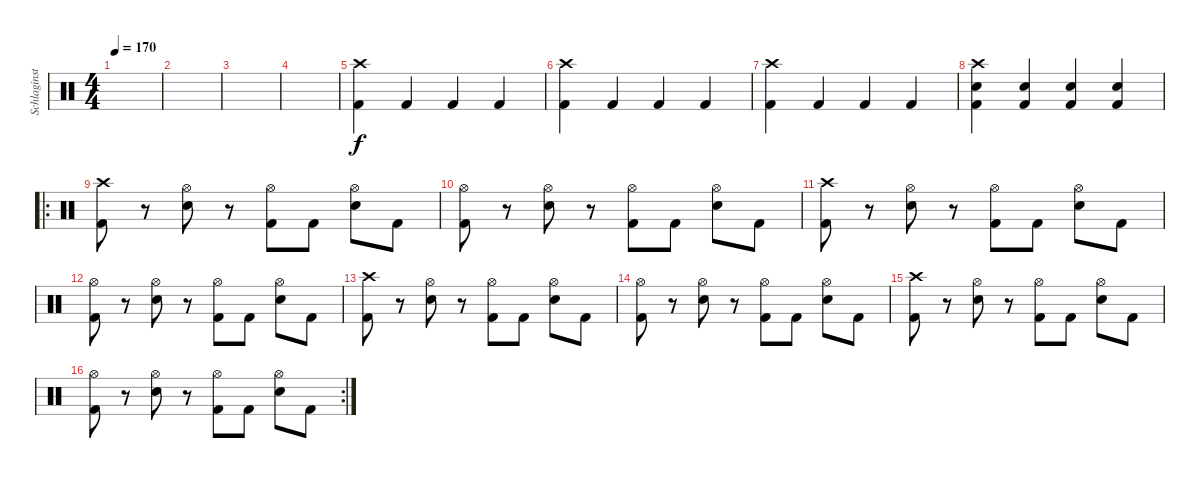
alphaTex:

\track ("Schlaginstrumente - Auswahl" "Schlaginst") {instrument percussion}
\staff {score}
\articulation defaults
\ts (4 4)
\tempo 170
\clef neutral
\ks c
|
|
|
|
("Crash high (hit)" "Kick (hit) 2").4 "Kick (hit) 2".4 "Kick (hit) 2".4 "Kick (hit) 2".4 |
("Crash high (hit)" "Kick (hit) 2").4 "Kick (hit) 2".4 "Kick (hit) 2".4 "Kick (hit) 2".4 |
("Crash high (hit)" "Kick (hit) 2").4 "Kick (hit) 2".4 "Kick (hit) 2".4 "Kick (hit) 2".4 |
("Crash high (hit)" "Kick (hit) 2" "Snare (hit) 2").4 ("Kick (hit) 2" "Snare (hit) 2").4 ("Kick (hit) 2" "Snare (hit) 2").4 ("Kick (hit) 2" "Snare (hit) 2").4 |
\ro
("Crash high (hit)" "Kick (hit) 2").8 r.8 ("Hi-Hat (open)" "Snare (hit) 2").8 r.8 ("Hi-Hat (open)" "Kick (hit) 2").8 "Kick (hit) 2".8 ("Hi-Hat (open)" "Snare (hit) 2").8 "Kick (hit) 2".8 |
("Hi-Hat (open)" "Kick (hit) 2").8 r.8 ("Hi-Hat (open)" "Snare (hit) 2").8 r.8 ("Hi-Hat (open)" "Kick (hit) 2").8 "Kick (hit) 2".8 ("Hi-Hat (open)" "Snare (hit) 2").8 "Kick (hit) 2".8 |
("Crash high (hit)" "Kick (hit) 2").8 r.8 ("Hi-Hat (open)" "Snare (hit) 2").8 r.8 ("Hi-Hat (open)" "Kick (hit) 2").8 "Kick (hit) 2".8 ("Hi-Hat (open)" "Snare (hit) 2").8 "Kick (hit) 2".8 |
("Hi-Hat (open)" "Kick (hit) 2").8 r.8 ("Hi-Hat (open)" "Snare (hit) 2").8 r.8 ("Hi-Hat (open)" "Kick (hit) 2").8 "Kick (hit) 2".8 ("Hi-Hat (open)" "Snare (hit) 2").8 "Kick (hit) 2".8 |
("Crash high (hit)" "Kick (hit) 2").8 r.8 ("Hi-Hat (open)" "Snare (hit) 2").8 r.8 ("Hi-Hat (open)" "Kick (hit) 2").8 "Kick (hit) 2".8 ("Hi-Hat (open)" "Snare (hit) 2").8 "Kick (hit) 2".8 |
("Hi-Hat (open)" "Kick (hit) 2").8 r.8 ("Hi-Hat (open)" "Snare (hit) 2").8 r.8 ("Hi-Hat (open)" "Kick (hit) 2").8 "Kick (hit) 2".8 ("Hi-Hat (open)" "Snare (hit) 2").8 "Kick (hit) 2".8 |
("Crash high (hit)" "Kick (hit) 2").8 r.8 ("Hi-Hat (open)" "Snare (hit) 2").8 r.8 ("Hi-Hat (open)" "Kick (hit) 2").8 "Kick (hit) 2".8 ("Hi-Hat (open)" "Snare (hit) 2").8 "Kick (hit) 2".8 |
\rc 2
("Hi-Hat (open)" "Kick (hit) 2").8 r.8 ("Hi-Hat (open)" "Snare (hit) 2").8 r.8 ("Hi-Hat (open)" "Kick (hit) 2").8 "Kick (hit) 2".8 ("Hi-Hat (open)" "Snare (hit) 2").8 "Kick (hit) 2".8
